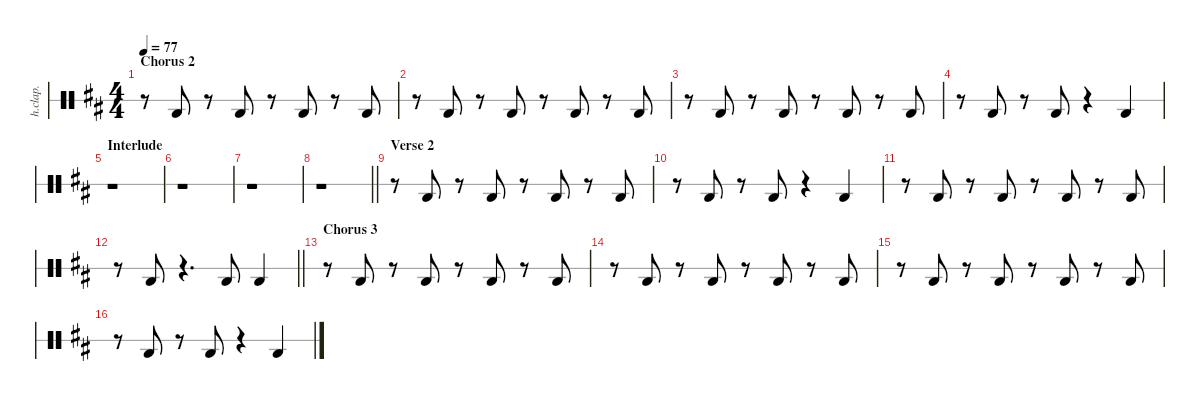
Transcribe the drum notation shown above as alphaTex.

\defaultSystemsLayout 4
\hideDynamics
\bracketExtendMode nobrackets
\otherSystemsTrackNameOrientation horizontal
\track ("Hand Clap" "h.clap.") {defaultSystemsLayout 8 instrument percussion}
\staff {score 1}
\articulation defaults
\ts (4 4)
\section ("" "Chorus 2")
\tempo 77
\clef neutral
\ks bminor
r.8{dy mf} "Hand Clap (hit)"{acc forcenatural}.8{beam split} r.8{beam split} "Hand Clap (hit)"{acc forcenatural}.8{beam split} r.8{beam split} "Hand Clap (hit)"{acc forcenatural}.8{beam split} r.8{beam split} "Hand Clap (hit)"{acc forcenatural}.8 |
r.8 "Hand Clap (hit)"{acc forcenatural}.8{beam split} r.8{beam split} "Hand Clap (hit)"{acc forcenatural}.8{beam split} r.8{beam split} "Hand Clap (hit)"{acc forcenatural}.8{beam split} r.8{beam split} "Hand Clap (hit)"{acc forcenatural}.8 |
r.8 "Hand Clap (hit)"{acc forcenatural}.8{beam split} r.8{beam split} "Hand Clap (hit)"{acc forcenatural}.8{beam split} r.8{beam split} "Hand Clap (hit)"{acc forcenatural}.8{beam split} r.8{beam split} "Hand Clap (hit)"{acc forcenatural}.8 |
r.8 "Hand Clap (hit)"{acc forcenatural}.8{beam split} r.8{beam split} "Hand Clap (hit)"{acc forcenatural}.8{beam split} r.4{beam split} "Hand Clap (hit)"{acc forcenatural}.4 |
\section ("" "Interlude")
r.1 |
r.1 |
r.1 |
\barLineRight lightlight
r.1 |
\section ("" "Verse 2")
r.8 "Hand Clap (hit)"{acc forcenatural}.8{beam split} r.8{beam split} "Hand Clap (hit)"{acc forcenatural}.8{beam split} r.8{beam split} "Hand Clap (hit)"{acc forcenatural}.8{beam split} r.8{beam split} "Hand Clap (hit)"{acc forcenatural}.8 |
r.8 "Hand Clap (hit)"{acc forcenatural}.8{beam split} r.8{beam split} "Hand Clap (hit)"{acc forcenatural}.8{beam split} r.4{beam split} "Hand Clap (hit)"{acc forcenatural}.4 |
r.8 "Hand Clap (hit)"{acc forcenatural}.8{beam split} r.8{beam split} "Hand Clap (hit)"{acc forcenatural}.8{beam split} r.8{beam split} "Hand Clap (hit)"{acc forcenatural}.8{beam split} r.8{beam split} "Hand Clap (hit)"{acc forcenatural}.8 |
\barLineRight lightlight
r.8 "Hand Clap (hit)"{acc forcenatural}.8{beam split} r.4{d beam split} "Hand Clap (hit)"{acc forcenatural}.8 "Hand Clap (hit)"{acc forcenatural}.4 |
\section ("" "Chorus 3")
r.8 "Hand Clap (hit)"{acc forcenatural}.8{beam split} r.8{beam split} "Hand Clap (hit)"{acc forcenatural}.8{beam split} r.8{beam split} "Hand Clap (hit)"{acc forcenatural}.8{beam split} r.8{beam split} "Hand Clap (hit)"{acc forcenatural}.8 |
r.8 "Hand Clap (hit)"{acc forcenatural}.8{beam split} r.8{beam split} "Hand Clap (hit)"{acc forcenatural}.8{beam split} r.8{beam split} "Hand Clap (hit)"{acc forcenatural}.8{beam split} r.8{beam split} "Hand Clap (hit)"{acc forcenatural}.8 |
r.8 "Hand Clap (hit)"{acc forcenatural}.8{beam split} r.8{beam split} "Hand Clap (hit)"{acc forcenatural}.8{beam split} r.8{beam split} "Hand Clap (hit)"{acc forcenatural}.8{beam split} r.8{beam split} "Hand Clap (hit)"{acc forcenatural}.8 |
r.8 "Hand Clap (hit)"{acc forcenatural}.8{beam split} r.8{beam split} "Hand Clap (hit)"{acc forcenatural}.8{beam split} r.4{beam split} "Hand Clap (hit)"{acc forcenatural}.4
